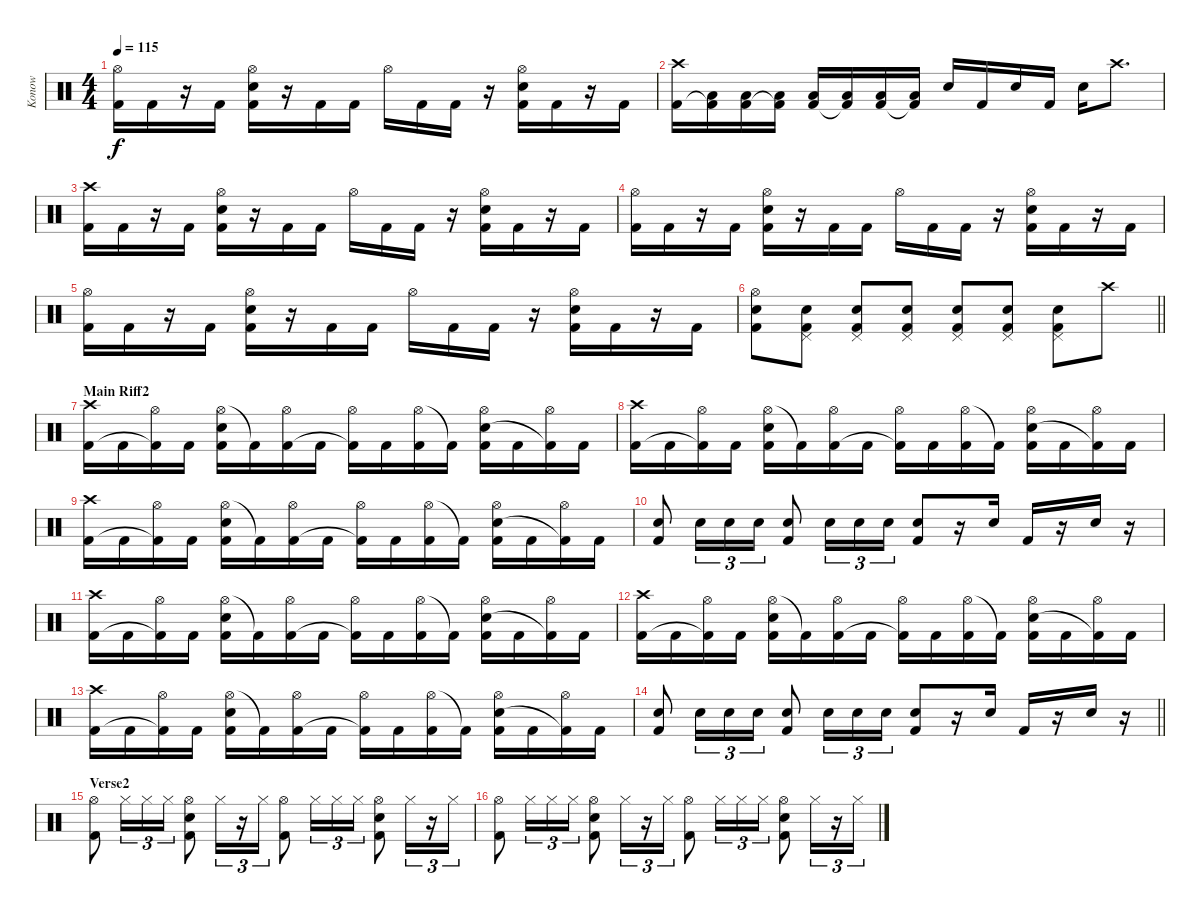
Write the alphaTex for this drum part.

\track ("Konow" "Konow") {instrument percussion}
\staff {score}
\articulation defaults
\ts (4 4)
\tempo 115
\clef neutral
\ks c
("Hi-Hat (open)" "Kick (hit) 2").16{dy f} "Kick (hit) 2".16 r.16 "Kick (hit) 2".16 ("Hi-Hat (open)" "Electric Snare (hit)" "Kick (hit) 2").16 r.16 "Kick (hit) 2".16 "Kick (hit) 2".16 "Hi-Hat (open)".16 "Kick (hit) 2".16 "Kick (hit) 2".16 r.16 ("Hi-Hat (open)" "Electric Snare (hit)" "Kick (hit) 2").16 "Kick (hit) 2".16 r.16 "Kick (hit) 2".16 |
("Crash high (hit)" "Kick (hit) 2").16 ("Low Tom (hit)" "Kick (hit) 2"{t}).16 ("Low Tom (hit)" "Kick (hit) 2").16 ("Low Tom (hit)" "Kick (hit) 2"{t}).16 ("Low Tom (hit)" "Kick (hit) 2").16 ("Low Tom (hit)" "Kick (hit) 2"{t}).16 ("Low Tom (hit)" "Kick (hit) 2").16 ("Low Tom (hit)" "Kick (hit) 2"{t}).16 "Electric Snare (hit)".16 "Kick (hit) 2".16 "Electric Snare (hit)".16 "Kick (hit) 2".16 "Electric Snare (hit)".16 "Crash high (hit)".8{d} |
("Crash high (hit)" "Kick (hit) 2").16 "Kick (hit) 2".16 r.16 "Kick (hit) 2".16 ("Hi-Hat (open)" "Electric Snare (hit)" "Kick (hit) 2").16 r.16 "Kick (hit) 2".16 "Kick (hit) 2".16 "Hi-Hat (open)".16 "Kick (hit) 2".16 "Kick (hit) 2".16 r.16 ("Hi-Hat (open)" "Electric Snare (hit)" "Kick (hit) 2").16 "Kick (hit) 2".16 r.16 "Kick (hit) 2".16 |
("Hi-Hat (open)" "Kick (hit) 2").16 "Kick (hit) 2".16 r.16 "Kick (hit) 2".16 ("Hi-Hat (open)" "Electric Snare (hit)" "Kick (hit) 2").16 r.16 "Kick (hit) 2".16 "Kick (hit) 2".16 "Hi-Hat (open)".16 "Kick (hit) 2".16 "Kick (hit) 2".16 r.16 ("Hi-Hat (open)" "Electric Snare (hit)" "Kick (hit) 2").16 "Kick (hit) 2".16 r.16 "Kick (hit) 2".16 |
("Hi-Hat (open)" "Kick (hit) 2").16 "Kick (hit) 2".16 r.16 "Kick (hit) 2".16 ("Hi-Hat (open)" "Electric Snare (hit)" "Kick (hit) 2").16 r.16 "Kick (hit) 2".16 "Kick (hit) 2".16 "Hi-Hat (open)".16 "Kick (hit) 2".16 "Kick (hit) 2".16 r.16 ("Hi-Hat (open)" "Electric Snare (hit)" "Kick (hit) 2").16 "Kick (hit) 2".16 r.16 "Kick (hit) 2".16 |
\barLineRight lightlight
("Hi-Hat (open)" "Electric Snare (hit)" "Kick (hit) 2").8 ("Pedal Hi-Hat (hit)" "Electric Snare (hit)" "Kick (hit) 2").8 ("Pedal Hi-Hat (hit)" "Electric Snare (hit)" "Kick (hit) 2").8 ("Pedal Hi-Hat (hit)" "Electric Snare (hit)" "Kick (hit) 2").8 ("Pedal Hi-Hat (hit)" "Electric Snare (hit)" "Kick (hit) 2").8 ("Pedal Hi-Hat (hit)" "Electric Snare (hit)" "Kick (hit) 2").8 ("Pedal Hi-Hat (hit)" "Electric Snare (hit)" "Kick (hit) 2").8 "Crash high (hit)".8 |
\section ("" "Main Riff2")
("Crash high (hit)" "Kick (hit) 2").16 "Kick (hit) 2".16 ("Hi-Hat (open)" "Kick (hit) 2"{t}).16 "Kick (hit) 2".16 ("Hi-Hat (open)" "Electric Snare (hit)" "Kick (hit) 2").16 "Kick (hit) 2"{t}.16 ("Hi-Hat (open)" "Kick (hit) 2").16 "Kick (hit) 2".16 ("Hi-Hat (open)" "Kick (hit) 2"{t}).16 "Kick (hit) 2".16 ("Hi-Hat (open)" "Kick (hit) 2").16 "Kick (hit) 2"{t}.16 ("Hi-Hat (open)" "Electric Snare (hit)" "Kick (hit) 2").16 "Kick (hit) 2".16 ("Hi-Hat (open)" "Kick (hit) 2"{t}).16 "Kick (hit) 2".16 |
("Crash high (hit)" "Kick (hit) 2").16 "Kick (hit) 2".16 ("Hi-Hat (open)" "Kick (hit) 2"{t}).16 "Kick (hit) 2".16 ("Hi-Hat (open)" "Electric Snare (hit)" "Kick (hit) 2").16 "Kick (hit) 2"{t}.16 ("Hi-Hat (open)" "Kick (hit) 2").16 "Kick (hit) 2".16 ("Hi-Hat (open)" "Kick (hit) 2"{t}).16 "Kick (hit) 2".16 ("Hi-Hat (open)" "Kick (hit) 2").16 "Kick (hit) 2"{t}.16 ("Hi-Hat (open)" "Electric Snare (hit)" "Kick (hit) 2").16 "Kick (hit) 2".16 ("Hi-Hat (open)" "Kick (hit) 2"{t}).16 "Kick (hit) 2".16 |
("Crash high (hit)" "Kick (hit) 2").16 "Kick (hit) 2".16 ("Hi-Hat (open)" "Kick (hit) 2"{t}).16 "Kick (hit) 2".16 ("Hi-Hat (open)" "Electric Snare (hit)" "Kick (hit) 2").16 "Kick (hit) 2"{t}.16 ("Hi-Hat (open)" "Kick (hit) 2").16 "Kick (hit) 2".16 ("Hi-Hat (open)" "Kick (hit) 2"{t}).16 "Kick (hit) 2".16 ("Hi-Hat (open)" "Kick (hit) 2").16 "Kick (hit) 2"{t}.16 ("Hi-Hat (open)" "Electric Snare (hit)" "Kick (hit) 2").16 "Kick (hit) 2".16 ("Hi-Hat (open)" "Kick (hit) 2"{t}).16 "Kick (hit) 2".16 |
("Kick (hit) 2" "Electric Snare (hit)").8 "Electric Snare (hit)".16{tu (3 2)} "Electric Snare (hit)".16{tu (3 2)} "Electric Snare (hit)".16{tu (3 2)} ("Kick (hit) 2" "Electric Snare (hit)").8 "Electric Snare (hit)".16{tu (3 2)} "Electric Snare (hit)".16{tu (3 2)} "Electric Snare (hit)".16{tu (3 2)} ("Kick (hit) 2" "Electric Snare (hit)").8 r.16 "Electric Snare (hit)".16 "Kick (hit) 2".16 r.16 "Electric Snare (hit)".16 r.16 |
("Crash high (hit)" "Kick (hit) 2").16 "Kick (hit) 2".16 ("Hi-Hat (open)" "Kick (hit) 2"{t}).16 "Kick (hit) 2".16 ("Hi-Hat (open)" "Electric Snare (hit)" "Kick (hit) 2").16 "Kick (hit) 2"{t}.16 ("Hi-Hat (open)" "Kick (hit) 2").16 "Kick (hit) 2".16 ("Hi-Hat (open)" "Kick (hit) 2"{t}).16 "Kick (hit) 2".16 ("Hi-Hat (open)" "Kick (hit) 2").16 "Kick (hit) 2"{t}.16 ("Hi-Hat (open)" "Electric Snare (hit)" "Kick (hit) 2").16 "Kick (hit) 2".16 ("Hi-Hat (open)" "Kick (hit) 2"{t}).16 "Kick (hit) 2".16 |
("Crash high (hit)" "Kick (hit) 2").16 "Kick (hit) 2".16 ("Hi-Hat (open)" "Kick (hit) 2"{t}).16 "Kick (hit) 2".16 ("Hi-Hat (open)" "Electric Snare (hit)" "Kick (hit) 2").16 "Kick (hit) 2"{t}.16 ("Hi-Hat (open)" "Kick (hit) 2").16 "Kick (hit) 2".16 ("Hi-Hat (open)" "Kick (hit) 2"{t}).16 "Kick (hit) 2".16 ("Hi-Hat (open)" "Kick (hit) 2").16 "Kick (hit) 2"{t}.16 ("Hi-Hat (open)" "Electric Snare (hit)" "Kick (hit) 2").16 "Kick (hit) 2".16 ("Hi-Hat (open)" "Kick (hit) 2"{t}).16 "Kick (hit) 2".16 |
("Crash high (hit)" "Kick (hit) 2").16 "Kick (hit) 2".16 ("Hi-Hat (open)" "Kick (hit) 2"{t}).16 "Kick (hit) 2".16 ("Hi-Hat (open)" "Electric Snare (hit)" "Kick (hit) 2").16 "Kick (hit) 2"{t}.16 ("Hi-Hat (open)" "Kick (hit) 2").16 "Kick (hit) 2".16 ("Hi-Hat (open)" "Kick (hit) 2"{t}).16 "Kick (hit) 2".16 ("Hi-Hat (open)" "Kick (hit) 2").16 "Kick (hit) 2"{t}.16 ("Hi-Hat (open)" "Electric Snare (hit)" "Kick (hit) 2").16 "Kick (hit) 2".16 ("Hi-Hat (open)" "Kick (hit) 2"{t}).16 "Kick (hit) 2".16 |
\barLineRight lightlight
("Kick (hit) 2" "Electric Snare (hit)").8 "Electric Snare (hit)".16{tu (3 2)} "Electric Snare (hit)".16{tu (3 2)} "Electric Snare (hit)".16{tu (3 2)} ("Kick (hit) 2" "Electric Snare (hit)").8 "Electric Snare (hit)".16{tu (3 2)} "Electric Snare (hit)".16{tu (3 2)} "Electric Snare (hit)".16{tu (3 2)} ("Kick (hit) 2" "Electric Snare (hit)").8 r.16 "Electric Snare (hit)".16 "Kick (hit) 2".16 r.16 "Electric Snare (hit)".16 r.16 |
\section ("" "Verse2")
("Hi-Hat (open)" "Kick (hit) 2").8 "Hi-Hat (closed)".16{tu (3 2)} "Hi-Hat (closed)".16{tu (3 2)} "Hi-Hat (closed)".16{tu (3 2)} ("Electric Snare (hit)" "Hi-Hat (open)" "Kick (hit) 2").8 "Hi-Hat (closed)".16{tu (3 2)} r.16{tu (3 2)} "Hi-Hat (closed)".16{tu (3 2)} ("Hi-Hat (open)" "Kick (hit) 2").8 "Hi-Hat (closed)".16{tu (3 2)} "Hi-Hat (closed)".16{tu (3 2)} "Hi-Hat (closed)".16{tu (3 2)} ("Electric Snare (hit)" "Hi-Hat (open)" "Kick (hit) 2").8 "Hi-Hat (closed)".16{tu (3 2)} r.16{tu (3 2)} "Hi-Hat (closed)".16{tu (3 2)} |
("Hi-Hat (open)" "Kick (hit) 2").8 "Hi-Hat (closed)".16{tu (3 2)} "Hi-Hat (closed)".16{tu (3 2)} "Hi-Hat (closed)".16{tu (3 2)} ("Electric Snare (hit)" "Hi-Hat (open)" "Kick (hit) 2").8 "Hi-Hat (closed)".16{tu (3 2)} r.16{tu (3 2)} "Hi-Hat (closed)".16{tu (3 2)} ("Hi-Hat (open)" "Kick (hit) 2").8 "Hi-Hat (closed)".16{tu (3 2)} "Hi-Hat (closed)".16{tu (3 2)} "Hi-Hat (closed)".16{tu (3 2)} ("Electric Snare (hit)" "Hi-Hat (open)" "Kick (hit) 2").8 "Hi-Hat (closed)".16{tu (3 2)} r.16{tu (3 2)} "Hi-Hat (closed)".16{tu (3 2)}
